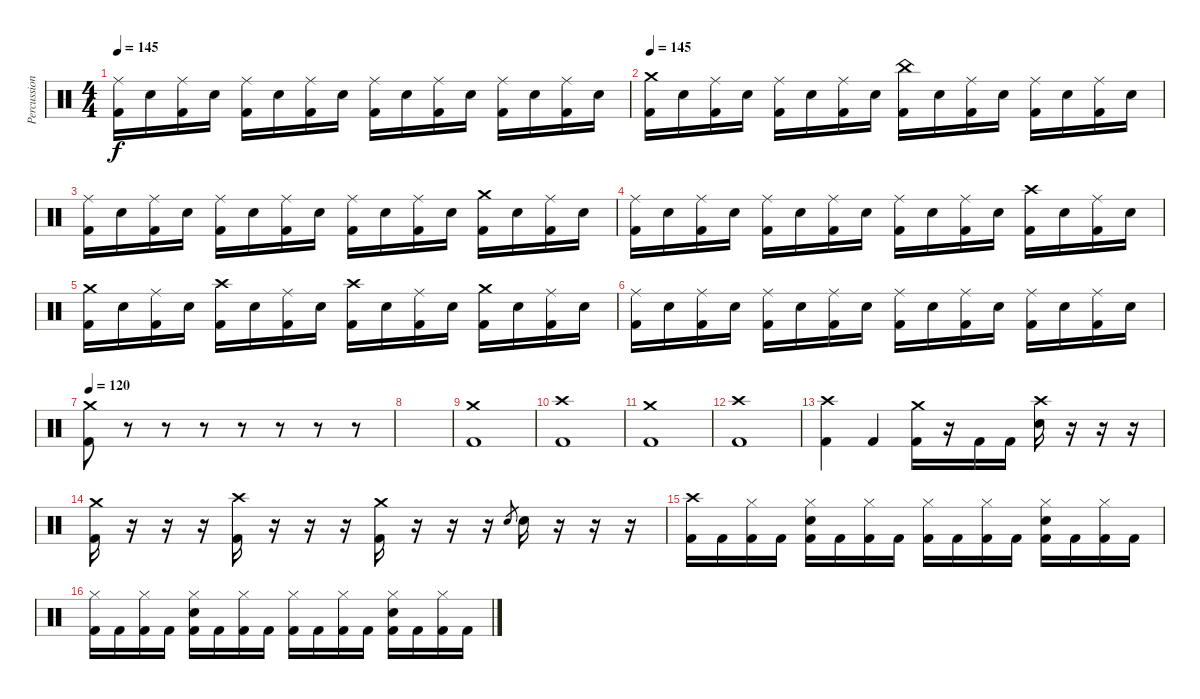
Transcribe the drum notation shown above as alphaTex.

\track ("Percussion" "Percussion") {instrument percussion}
\staff {score}
\articulation defaults
\ts (4 4)
\tempo 145
\clef neutral
\ks c
("Ride (middle)" "Kick (hit) 2").16{dy f} "Snare (hit) 2".16 ("Ride (middle)" "Kick (hit) 2").16 "Snare (hit) 2".16 ("Ride (middle)" "Kick (hit) 2").16 "Snare (hit) 2".16 ("Ride (middle)" "Kick (hit) 2").16 "Snare (hit) 2".16 ("Ride (middle)" "Kick (hit) 2").16 "Snare (hit) 2".16 ("Ride (middle)" "Kick (hit) 2").16 "Snare (hit) 2".16 ("Ride (middle)" "Kick (hit) 2").16 "Snare (hit) 2".16 ("Ride (middle)" "Kick (hit) 2").16 "Snare (hit) 2".16 |
\tempo 145
("Crash medium (hit)" "Kick (hit) 2").16 "Snare (hit) 2".16 ("Ride (middle)" "Kick (hit) 2").16 "Snare (hit) 2".16 ("Ride (middle)" "Kick (hit) 2").16 "Snare (hit) 2".16 ("Ride (middle)" "Kick (hit) 2").16 "Snare (hit) 2".16 ("China (hit)" "Kick (hit) 2").16 "Snare (hit) 2".16 ("Ride (middle)" "Kick (hit) 2").16 "Snare (hit) 2".16 ("Ride (middle)" "Kick (hit) 2").16 "Snare (hit) 2".16 ("Ride (middle)" "Kick (hit) 2").16 "Snare (hit) 2".16 |
("Ride (middle)" "Kick (hit) 2").16 "Snare (hit) 2".16 ("Ride (middle)" "Kick (hit) 2").16 "Snare (hit) 2".16 ("Ride (middle)" "Kick (hit) 2").16 "Snare (hit) 2".16 ("Ride (middle)" "Kick (hit) 2").16 "Snare (hit) 2".16 ("Ride (middle)" "Kick (hit) 2").16 "Snare (hit) 2".16 ("Ride (middle)" "Kick (hit) 2").16 "Snare (hit) 2".16 ("Crash medium (hit)" "Kick (hit) 2").16 "Snare (hit) 2".16 ("Ride (middle)" "Kick (hit) 2").16 "Snare (hit) 2".16 |
("Ride (middle)" "Kick (hit) 2").16 "Snare (hit) 2".16 ("Ride (middle)" "Kick (hit) 2").16 "Snare (hit) 2".16 ("Ride (middle)" "Kick (hit) 2").16 "Snare (hit) 2".16 ("Ride (middle)" "Kick (hit) 2").16 "Snare (hit) 2".16 ("Ride (middle)" "Kick (hit) 2").16 "Snare (hit) 2".16 ("Ride (middle)" "Kick (hit) 2").16 "Snare (hit) 2".16 ("Crash high (hit)" "Kick (hit) 2").16 "Snare (hit) 2".16 ("Ride (middle)" "Kick (hit) 2").16 "Snare (hit) 2".16 |
("Crash medium (hit)" "Kick (hit) 2").16 "Snare (hit) 2".16 ("Ride (middle)" "Kick (hit) 2").16 "Snare (hit) 2".16 ("Crash high (hit)" "Kick (hit) 2").16 "Snare (hit) 2".16 ("Ride (middle)" "Kick (hit) 2").16 "Snare (hit) 2".16 ("Crash high (hit)" "Kick (hit) 2").16 "Snare (hit) 2".16 ("Ride (middle)" "Kick (hit) 2").16 "Snare (hit) 2".16 ("Crash medium (hit)" "Kick (hit) 2").16 "Snare (hit) 2".16 ("Ride (middle)" "Kick (hit) 2").16 "Snare (hit) 2".16 |
("Ride (middle)" "Kick (hit) 2").16 "Snare (hit) 2".16 ("Ride (middle)" "Kick (hit) 2").16 "Snare (hit) 2".16 ("Ride (middle)" "Kick (hit) 2").16 "Snare (hit) 2".16 ("Ride (middle)" "Kick (hit) 2").16 "Snare (hit) 2".16 ("Ride (middle)" "Kick (hit) 2").16 "Snare (hit) 2".16 ("Ride (middle)" "Kick (hit) 2").16 "Snare (hit) 2".16 ("Ride (middle)" "Kick (hit) 2").16 "Snare (hit) 2".16 ("Ride (middle)" "Kick (hit) 2").16 "Snare (hit) 2".16 |
\tempo 120
("Crash medium (hit)" "Kick (hit) 2").8 r.8 r.8 r.8 r.8 r.8 r.8 r.8 |
|
("Crash medium (hit)" "Kick (hit) 2").1 |
("Crash high (hit)" "Kick (hit) 2").1 |
("Crash medium (hit)" "Kick (hit) 2").1 |
("Crash high (hit)" "Kick (hit) 2").1 |
("Crash high (hit)" "Kick (hit) 2").4 "Kick (hit) 2".4 ("Crash medium (hit)" "Kick (hit) 2").16 r.16 "Kick (hit) 2".16 "Kick (hit) 2".16 ("Crash high (hit)" "Snare (hit) 2").16 r.16 r.16 r.16 |
("Crash medium (hit)" "Kick (hit) 2").16 r.16 r.16 r.16 ("Crash high (hit)" "Kick (hit) 2").16 r.16 r.16 r.16 ("Crash medium (hit)" "Kick (hit) 2").16 r.16 r.16 r.16 "Snare (hit) 2".8{gr} "Snare (hit) 2".16 r.16 r.16 r.16 |
("Crash high (hit)" "Kick (hit) 2").16 "Kick (hit) 2".16 ("Hi-Hat (closed)" "Kick (hit) 2").16 "Kick (hit) 2".16 ("Hi-Hat (closed)" "Snare (hit) 2" "Kick (hit) 2").16 "Kick (hit) 2".16 ("Hi-Hat (closed)" "Kick (hit) 2").16 "Kick (hit) 2".16 ("Hi-Hat (closed)" "Kick (hit) 2").16 "Kick (hit) 2".16 ("Hi-Hat (closed)" "Kick (hit) 2").16 "Kick (hit) 2".16 ("Hi-Hat (closed)" "Snare (hit) 2" "Kick (hit) 2").16 "Kick (hit) 2".16 ("Hi-Hat (closed)" "Kick (hit) 2").16 "Kick (hit) 2".16 |
("Hi-Hat (closed)" "Kick (hit) 2").16 "Kick (hit) 2".16 ("Hi-Hat (closed)" "Kick (hit) 2").16 "Kick (hit) 2".16 ("Hi-Hat (closed)" "Snare (hit) 2" "Kick (hit) 2").16 "Kick (hit) 2".16 ("Hi-Hat (closed)" "Kick (hit) 2").16 "Kick (hit) 2".16 ("Hi-Hat (closed)" "Kick (hit) 2").16 "Kick (hit) 2".16 ("Hi-Hat (closed)" "Kick (hit) 2").16 "Kick (hit) 2".16 ("Hi-Hat (closed)" "Snare (hit) 2" "Kick (hit) 2").16 "Kick (hit) 2".16 ("Hi-Hat (closed)" "Kick (hit) 2").16 "Kick (hit) 2".16
